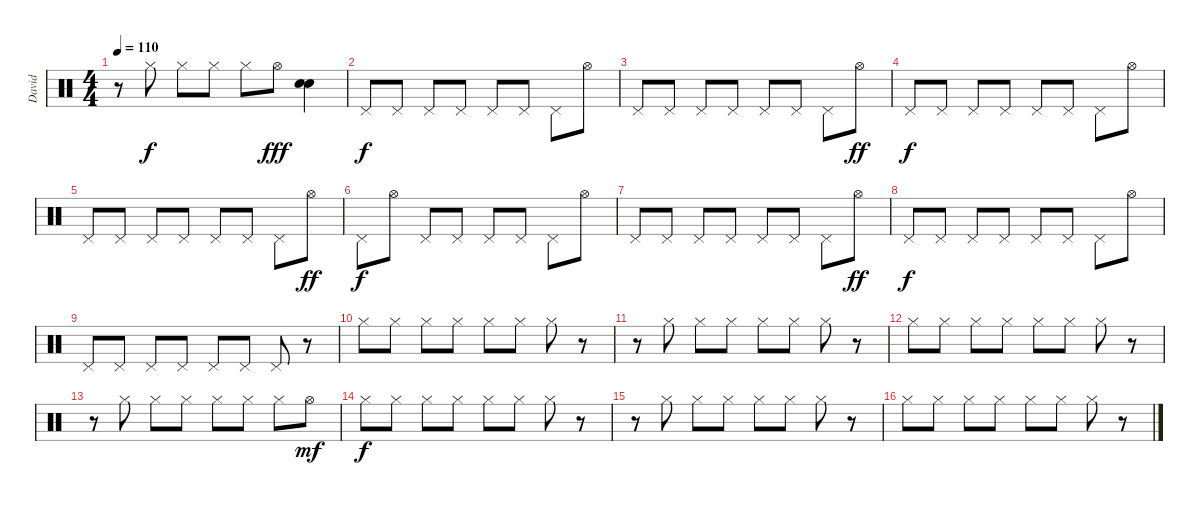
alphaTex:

\track ("David" "David") {instrument percussion}
\staff {score}
\articulation defaults
\ts (4 4)
\tempo 110
\clef neutral
\ks c
r.8{dy mf} "Hi-Hat (closed)".8{dy f} "Hi-Hat (closed)".8 "Hi-Hat (closed)".8 "Hi-Hat (closed)".8 "Hi-Hat (open)".8{dy fff} ("Snare (hit) 2" "Snare (hit) 2").4 |
"Pedal Hi-Hat (hit)".8{dy f} "Pedal Hi-Hat (hit)".8 "Pedal Hi-Hat (hit)".8 "Pedal Hi-Hat (hit)".8 "Pedal Hi-Hat (hit)".8 "Pedal Hi-Hat (hit)".8 "Pedal Hi-Hat (hit)".8 "Hi-Hat (open)".8 |
"Pedal Hi-Hat (hit)".8 "Pedal Hi-Hat (hit)".8 "Pedal Hi-Hat (hit)".8 "Pedal Hi-Hat (hit)".8 "Pedal Hi-Hat (hit)".8 "Pedal Hi-Hat (hit)".8 "Pedal Hi-Hat (hit)".8 "Hi-Hat (open)".8{dy ff} |
"Pedal Hi-Hat (hit)".8{dy f} "Pedal Hi-Hat (hit)".8 "Pedal Hi-Hat (hit)".8 "Pedal Hi-Hat (hit)".8 "Pedal Hi-Hat (hit)".8 "Pedal Hi-Hat (hit)".8 "Pedal Hi-Hat (hit)".8 "Hi-Hat (open)".8 |
"Pedal Hi-Hat (hit)".8 "Pedal Hi-Hat (hit)".8 "Pedal Hi-Hat (hit)".8 "Pedal Hi-Hat (hit)".8 "Pedal Hi-Hat (hit)".8 "Pedal Hi-Hat (hit)".8 "Pedal Hi-Hat (hit)".8 "Hi-Hat (open)".8{dy ff} |
"Pedal Hi-Hat (hit)".8{dy f} "Hi-Hat (open)".8 "Pedal Hi-Hat (hit)".8 "Pedal Hi-Hat (hit)".8 "Pedal Hi-Hat (hit)".8 "Pedal Hi-Hat (hit)".8 "Pedal Hi-Hat (hit)".8 "Hi-Hat (open)".8 |
"Pedal Hi-Hat (hit)".8 "Pedal Hi-Hat (hit)".8 "Pedal Hi-Hat (hit)".8 "Pedal Hi-Hat (hit)".8 "Pedal Hi-Hat (hit)".8 "Pedal Hi-Hat (hit)".8 "Pedal Hi-Hat (hit)".8 "Hi-Hat (open)".8{dy ff} |
"Pedal Hi-Hat (hit)".8{dy f} "Pedal Hi-Hat (hit)".8 "Pedal Hi-Hat (hit)".8 "Pedal Hi-Hat (hit)".8 "Pedal Hi-Hat (hit)".8 "Pedal Hi-Hat (hit)".8 "Pedal Hi-Hat (hit)".8 "Hi-Hat (open)".8 |
"Pedal Hi-Hat (hit)".8 "Pedal Hi-Hat (hit)".8 "Pedal Hi-Hat (hit)".8 "Pedal Hi-Hat (hit)".8 "Pedal Hi-Hat (hit)".8 "Pedal Hi-Hat (hit)".8 "Pedal Hi-Hat (hit)".8 r.8 |
"Hi-Hat (closed)".8 "Hi-Hat (closed)".8 "Hi-Hat (closed)".8 "Hi-Hat (closed)".8 "Hi-Hat (closed)".8 "Hi-Hat (closed)".8 "Hi-Hat (closed)".8 r.8 |
r.8 "Hi-Hat (closed)".8 "Hi-Hat (closed)".8 "Hi-Hat (closed)".8 "Hi-Hat (closed)".8 "Hi-Hat (closed)".8 "Hi-Hat (closed)".8 r.8 |
"Hi-Hat (closed)".8 "Hi-Hat (closed)".8 "Hi-Hat (closed)".8 "Hi-Hat (closed)".8 "Hi-Hat (closed)".8 "Hi-Hat (closed)".8 "Hi-Hat (closed)".8 r.8 |
r.8 "Hi-Hat (closed)".8 "Hi-Hat (closed)".8 "Hi-Hat (closed)".8 "Hi-Hat (closed)".8 "Hi-Hat (closed)".8 "Hi-Hat (closed)".8 "Hi-Hat (open)".8{dy mf} |
"Hi-Hat (closed)".8{dy f} "Hi-Hat (closed)".8 "Hi-Hat (closed)".8 "Hi-Hat (closed)".8 "Hi-Hat (closed)".8 "Hi-Hat (closed)".8 "Hi-Hat (closed)".8 r.8 |
r.8 "Hi-Hat (closed)".8 "Hi-Hat (closed)".8 "Hi-Hat (closed)".8 "Hi-Hat (closed)".8 "Hi-Hat (closed)".8 "Hi-Hat (closed)".8 r.8 |
"Hi-Hat (closed)".8 "Hi-Hat (closed)".8 "Hi-Hat (closed)".8 "Hi-Hat (closed)".8 "Hi-Hat (closed)".8 "Hi-Hat (closed)".8 "Hi-Hat (closed)".8 r.8
